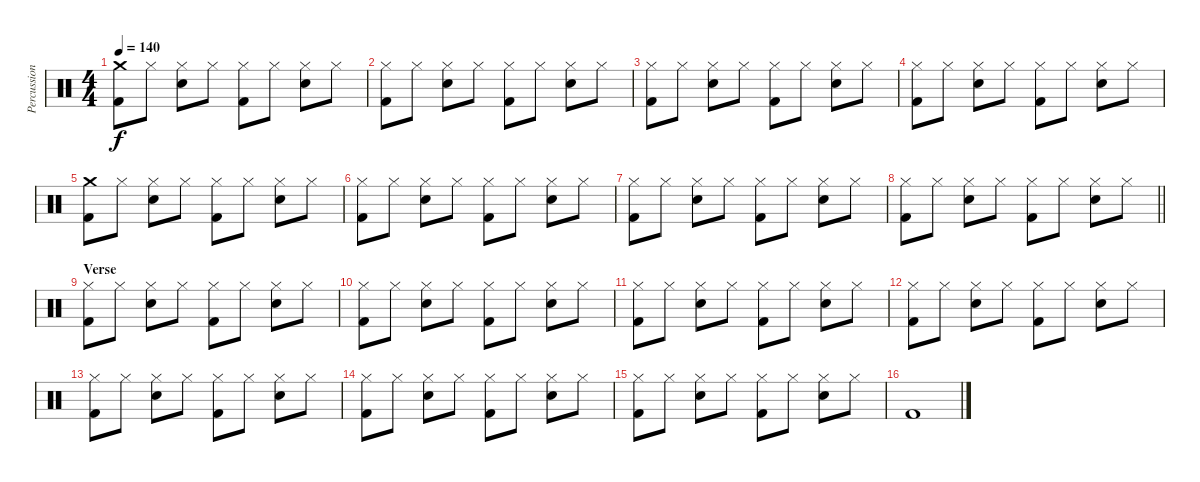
\track ("Percussion" "Percussion") {instrument percussion}
\staff {score}
\articulation defaults
\ts (4 4)
\tempo 140
\clef neutral
\ks c
("Crash medium (hit)" "Kick (hit) 2").8{dy f} "Hi-Hat (closed)".8 ("Hi-Hat (closed)" "Snare (hit) 2").8 "Hi-Hat (closed)".8 ("Hi-Hat (closed)" "Kick (hit) 2").8 "Hi-Hat (closed)".8 ("Hi-Hat (closed)" "Snare (hit) 2").8 "Hi-Hat (closed)".8 |
("Hi-Hat (closed)" "Kick (hit) 2").8 "Hi-Hat (closed)".8 ("Hi-Hat (closed)" "Snare (hit) 2").8 "Hi-Hat (closed)".8 ("Hi-Hat (closed)" "Kick (hit) 2").8 "Hi-Hat (closed)".8 ("Hi-Hat (closed)" "Snare (hit) 2").8 "Hi-Hat (closed)".8 |
("Hi-Hat (closed)" "Kick (hit) 2").8 "Hi-Hat (closed)".8 ("Hi-Hat (closed)" "Snare (hit) 2").8 "Hi-Hat (closed)".8 ("Hi-Hat (closed)" "Kick (hit) 2").8 "Hi-Hat (closed)".8 ("Hi-Hat (closed)" "Snare (hit) 2").8 "Hi-Hat (closed)".8 |
("Hi-Hat (closed)" "Kick (hit) 2").8 "Hi-Hat (closed)".8 ("Hi-Hat (closed)" "Snare (hit) 2").8 "Hi-Hat (closed)".8 ("Hi-Hat (closed)" "Kick (hit) 2").8 "Hi-Hat (closed)".8 ("Hi-Hat (closed)" "Snare (hit) 2").8 "Hi-Hat (closed)".8 |
("Crash medium (hit)" "Kick (hit) 2").8 "Hi-Hat (closed)".8 ("Hi-Hat (closed)" "Snare (hit) 2").8 "Hi-Hat (closed)".8 ("Hi-Hat (closed)" "Kick (hit) 2").8 "Hi-Hat (closed)".8 ("Hi-Hat (closed)" "Snare (hit) 2").8 "Hi-Hat (closed)".8 |
("Hi-Hat (closed)" "Kick (hit) 2").8 "Hi-Hat (closed)".8 ("Hi-Hat (closed)" "Snare (hit) 2").8 "Hi-Hat (closed)".8 ("Hi-Hat (closed)" "Kick (hit) 2").8 "Hi-Hat (closed)".8 ("Hi-Hat (closed)" "Snare (hit) 2").8 "Hi-Hat (closed)".8 |
("Hi-Hat (closed)" "Kick (hit) 2").8 "Hi-Hat (closed)".8 ("Hi-Hat (closed)" "Snare (hit) 2").8 "Hi-Hat (closed)".8 ("Hi-Hat (closed)" "Kick (hit) 2").8 "Hi-Hat (closed)".8 ("Hi-Hat (closed)" "Snare (hit) 2").8 "Hi-Hat (closed)".8 |
\barLineRight lightlight
("Hi-Hat (closed)" "Kick (hit) 2").8 "Hi-Hat (closed)".8 ("Hi-Hat (closed)" "Snare (hit) 2").8 "Hi-Hat (closed)".8 ("Hi-Hat (closed)" "Kick (hit) 2").8 "Hi-Hat (closed)".8 ("Hi-Hat (closed)" "Snare (hit) 2").8 "Hi-Hat (closed)".8 |
\section ("" "Verse")
("Hi-Hat (closed)" "Kick (hit) 2").8 "Hi-Hat (closed)".8 ("Hi-Hat (closed)" "Snare (hit) 2").8 "Hi-Hat (closed)".8 ("Hi-Hat (closed)" "Kick (hit) 2").8 "Hi-Hat (closed)".8 ("Hi-Hat (closed)" "Snare (hit) 2").8 "Hi-Hat (closed)".8 |
("Hi-Hat (closed)" "Kick (hit) 2").8 "Hi-Hat (closed)".8 ("Hi-Hat (closed)" "Snare (hit) 2").8 "Hi-Hat (closed)".8 ("Hi-Hat (closed)" "Kick (hit) 2").8 "Hi-Hat (closed)".8 ("Hi-Hat (closed)" "Snare (hit) 2").8 "Hi-Hat (closed)".8 |
("Hi-Hat (closed)" "Kick (hit) 2").8 "Hi-Hat (closed)".8 ("Hi-Hat (closed)" "Snare (hit) 2").8 "Hi-Hat (closed)".8 ("Hi-Hat (closed)" "Kick (hit) 2").8 "Hi-Hat (closed)".8 ("Hi-Hat (closed)" "Snare (hit) 2").8 "Hi-Hat (closed)".8 |
("Hi-Hat (closed)" "Kick (hit) 2").8 "Hi-Hat (closed)".8 ("Hi-Hat (closed)" "Snare (hit) 2").8 "Hi-Hat (closed)".8 ("Hi-Hat (closed)" "Kick (hit) 2").8 "Hi-Hat (closed)".8 ("Hi-Hat (closed)" "Snare (hit) 2").8 "Hi-Hat (closed)".8 |
("Hi-Hat (closed)" "Kick (hit) 2").8 "Hi-Hat (closed)".8 ("Hi-Hat (closed)" "Snare (hit) 2").8 "Hi-Hat (closed)".8 ("Hi-Hat (closed)" "Kick (hit) 2").8 "Hi-Hat (closed)".8 ("Hi-Hat (closed)" "Snare (hit) 2").8 "Hi-Hat (closed)".8 |
("Hi-Hat (closed)" "Kick (hit) 2").8 "Hi-Hat (closed)".8 ("Hi-Hat (closed)" "Snare (hit) 2").8 "Hi-Hat (closed)".8 ("Hi-Hat (closed)" "Kick (hit) 2").8 "Hi-Hat (closed)".8 ("Hi-Hat (closed)" "Snare (hit) 2").8 "Hi-Hat (closed)".8 |
("Hi-Hat (closed)" "Kick (hit) 2").8 "Hi-Hat (closed)".8 ("Hi-Hat (closed)" "Snare (hit) 2").8 "Hi-Hat (closed)".8 ("Hi-Hat (closed)" "Kick (hit) 2").8 "Hi-Hat (closed)".8 ("Hi-Hat (closed)" "Snare (hit) 2").8 "Hi-Hat (closed)".8 |
"Kick (hit) 2".1
